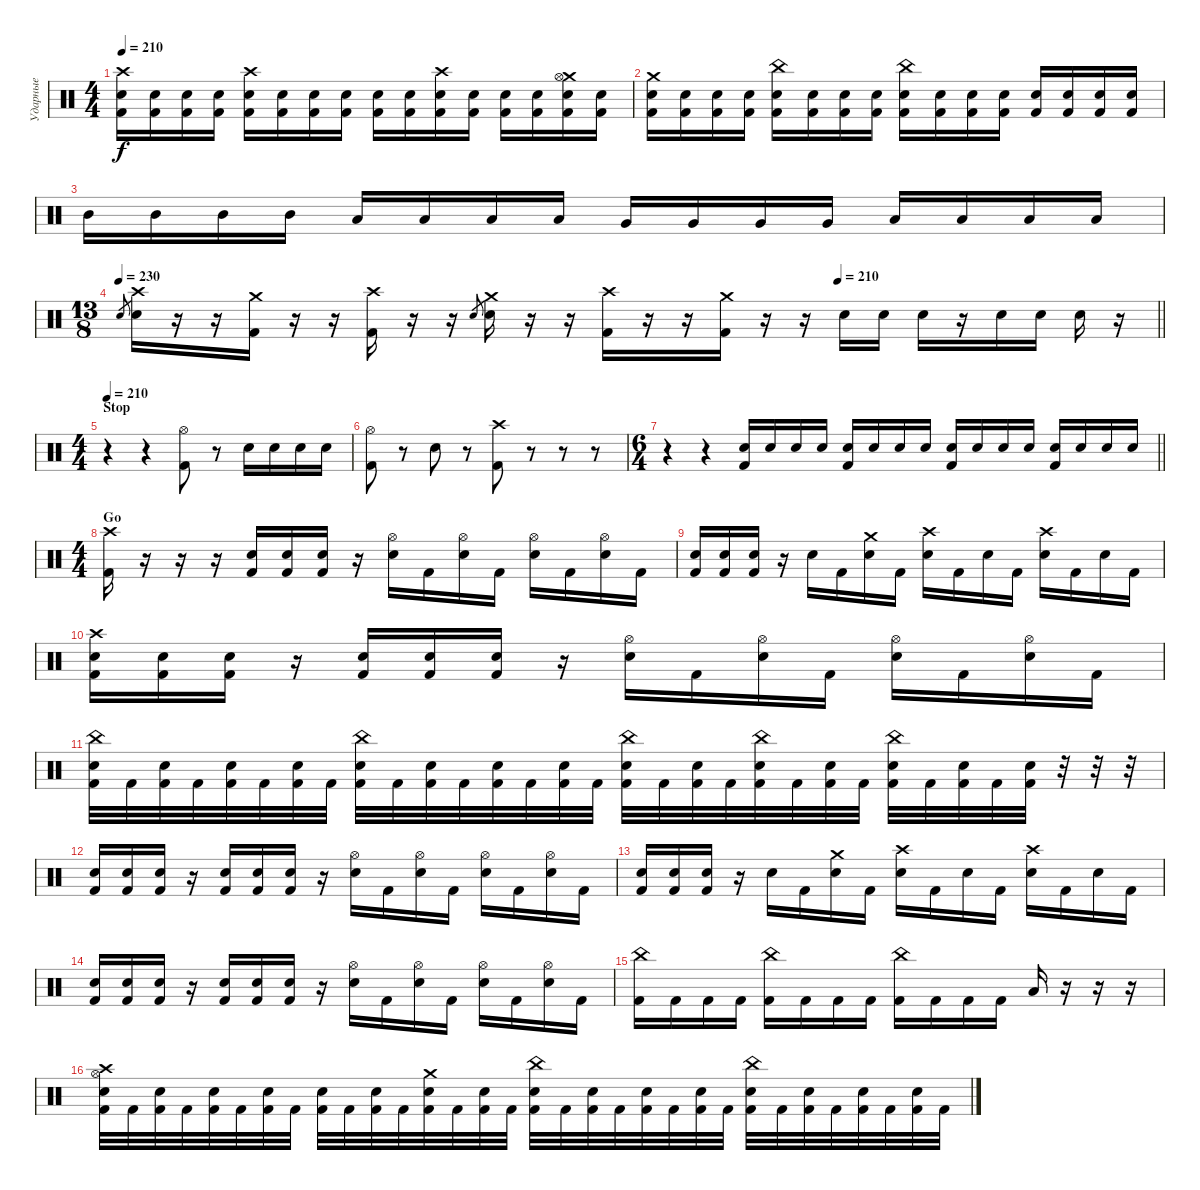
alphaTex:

\track ("Ударные" "Ударные") {instrument percussion}
\staff {score}
\articulation defaults
\ts (4 4)
\tempo 210
\clef neutral
\ks c
("Kick (hit) 2" "Electric Snare (hit)" "Crash high (hit)").16{dy f} ("Kick (hit) 2" "Electric Snare (hit)").16 ("Kick (hit) 2" "Electric Snare (hit)").16 ("Kick (hit) 2" "Electric Snare (hit)").16 ("Kick (hit) 2" "Electric Snare (hit)" "Crash high (hit)").16 ("Kick (hit) 2" "Electric Snare (hit)").16 ("Kick (hit) 2" "Electric Snare (hit)").16 ("Kick (hit) 2" "Electric Snare (hit)").16 ("Kick (hit) 2" "Electric Snare (hit)").16 ("Kick (hit) 2" "Electric Snare (hit)").16 ("Kick (hit) 2" "Electric Snare (hit)" "Crash high (hit)").16 ("Kick (hit) 2" "Electric Snare (hit)").16 ("Kick (hit) 2" "Electric Snare (hit)").16 ("Kick (hit) 2" "Electric Snare (hit)").16 ("Kick (hit) 2" "Electric Snare (hit)" "Crash medium (hit)" "Hi-Hat (open)").16 ("Kick (hit) 2" "Electric Snare (hit)").16 |
("Kick (hit) 2" "Electric Snare (hit)" "Crash medium (hit)").16 ("Kick (hit) 2" "Electric Snare (hit)").16 ("Kick (hit) 2" "Electric Snare (hit)").16 ("Kick (hit) 2" "Electric Snare (hit)").16 ("Kick (hit) 2" "Electric Snare (hit)" "China (hit)").16 ("Kick (hit) 2" "Electric Snare (hit)").16 ("Kick (hit) 2" "Electric Snare (hit)").16 ("Kick (hit) 2" "Electric Snare (hit)").16 ("Kick (hit) 2" "Electric Snare (hit)" "China (hit)").16 ("Kick (hit) 2" "Electric Snare (hit)").16 ("Kick (hit) 2" "Electric Snare (hit)").16 ("Kick (hit) 2" "Electric Snare (hit)").16 ("Kick (hit) 2" "Electric Snare (hit)").16 ("Kick (hit) 2" "Electric Snare (hit)").16 ("Kick (hit) 2" "Electric Snare (hit)").16 ("Kick (hit) 2" "Electric Snare (hit)").16 |
"Mid Tom (hit)".16 "Mid Tom (hit)".16 "Mid Tom (hit)".16 "Mid Tom (hit)".16 "Low Tom (hit)".16 "Low Tom (hit)".16 "Low Tom (hit)".16 "Low Tom (hit)".16 "Very Low Tom (hit)".16 "Very Low Tom (hit)".16 "Very Low Tom (hit)".16 "Very Low Tom (hit)".16 "Low Tom (hit)".16 "Low Tom (hit)".16 "Low Tom (hit)".16 "Low Tom (hit)".16 |
\ts (13 8)
\tempo 230
\tempo (210 0.6923076923076923)
\barLineRight lightlight "Electric Snare (hit)".8{gr}
("Electric Snare (hit)" "Crash high (hit)").16 r.16 r.16 ("Kick (hit) 2" "Crash medium (hit)").16 r.16 r.16 ("Kick (hit) 2" "Crash high (hit)").16 r.16 r.16 "Electric Snare (hit)".8{gr} ("Electric Snare (hit)" "Crash medium (hit)").16 r.16 r.16 ("Kick (hit) 2" "Crash high (hit)").16 r.16 r.16 ("Kick (hit) 2" "Crash medium (hit)").16 r.16 r.16 "Electric Snare (hit)".16 "Electric Snare (hit)".16 "Electric Snare (hit)".16 r.16 "Electric Snare (hit)".16 "Electric Snare (hit)".16 "Electric Snare (hit)".16 r.16 |
\ts (4 4)
\section ("" "Stop")
\tempo 210
r.4 r.4 ("Hi-Hat (open)" "Kick (hit) 2").8 r.8 "Electric Snare (hit)".16 "Electric Snare (hit)".16 "Electric Snare (hit)".16 "Electric Snare (hit)".16 |
("Hi-Hat (open)" "Kick (hit) 2").8 r.8 "Electric Snare (hit)".8 r.8 ("Kick (hit) 2" "Crash high (hit)").8 r.8 r.8{volume 5} r.8 |
\ts (6 4)
\barLineRight lightlight
r.4 r.4{volume 9} ("Kick (hit) 2" "Electric Snare (hit)").16{volume 16} "Electric Snare (hit)".16 "Electric Snare (hit)".16 "Electric Snare (hit)".16 ("Kick (hit) 2" "Electric Snare (hit)").16 "Electric Snare (hit)".16 "Electric Snare (hit)".16 "Electric Snare (hit)".16 ("Kick (hit) 2" "Electric Snare (hit)").16 "Electric Snare (hit)".16 "Electric Snare (hit)".16 "Electric Snare (hit)".16 ("Kick (hit) 2" "Electric Snare (hit)").16 "Electric Snare (hit)".16 "Electric Snare (hit)".16 "Electric Snare (hit)".16 |
\ts (4 4)
\section ("" "Go")
("Kick (hit) 2" "Crash high (hit)").16 r.16 r.16 r.16 ("Electric Snare (hit)" "Kick (hit) 2").16 ("Electric Snare (hit)" "Kick (hit) 2").16 ("Electric Snare (hit)" "Kick (hit) 2").16 r.16 ("Electric Snare (hit)" "Hi-Hat (open)").16 "Kick (hit) 2".16 ("Electric Snare (hit)" "Hi-Hat (open)").16 "Kick (hit) 2".16 ("Electric Snare (hit)" "Hi-Hat (open)").16 "Kick (hit) 2".16 ("Electric Snare (hit)" "Hi-Hat (open)").16 "Kick (hit) 2".16 |
("Electric Snare (hit)" "Kick (hit) 2").16 ("Electric Snare (hit)" "Kick (hit) 2").16 ("Electric Snare (hit)" "Kick (hit) 2").16 r.16 "Electric Snare (hit)".16 "Kick (hit) 2".16 ("Electric Snare (hit)" "Crash medium (hit)").16 "Kick (hit) 2".16 ("Electric Snare (hit)" "Crash high (hit)").16 "Kick (hit) 2".16 "Electric Snare (hit)".16 "Kick (hit) 2".16 ("Electric Snare (hit)" "Crash high (hit)").16 "Kick (hit) 2".16 "Electric Snare (hit)".16 "Kick (hit) 2".16 |
("Electric Snare (hit)" "Kick (hit) 2" "Crash high (hit)").16 ("Electric Snare (hit)" "Kick (hit) 2").16 ("Electric Snare (hit)" "Kick (hit) 2").16 r.16 ("Electric Snare (hit)" "Kick (hit) 2").16 ("Electric Snare (hit)" "Kick (hit) 2").16 ("Electric Snare (hit)" "Kick (hit) 2").16 r.16 ("Electric Snare (hit)" "Hi-Hat (open)").16 "Kick (hit) 2".16 ("Electric Snare (hit)" "Hi-Hat (open)").16 "Kick (hit) 2".16 ("Electric Snare (hit)" "Hi-Hat (open)").16 "Kick (hit) 2".16 ("Electric Snare (hit)" "Hi-Hat (open)").16 "Kick (hit) 2".16 |
("Kick (hit) 2" "Electric Snare (hit)" "China (hit)").32 "Kick (hit) 2".32 ("Kick (hit) 2" "Electric Snare (hit)").32 "Kick (hit) 2".32 ("Kick (hit) 2" "Electric Snare (hit)").32 "Kick (hit) 2".32 ("Kick (hit) 2" "Electric Snare (hit)").32 "Kick (hit) 2".32 ("Kick (hit) 2" "Electric Snare (hit)" "China (hit)").32 "Kick (hit) 2".32 ("Kick (hit) 2" "Electric Snare (hit)").32 "Kick (hit) 2".32 ("Kick (hit) 2" "Electric Snare (hit)").32 "Kick (hit) 2".32 ("Kick (hit) 2" "Electric Snare (hit)").32 "Kick (hit) 2".32 ("Kick (hit) 2" "Electric Snare (hit)" "China (hit)").32 "Kick (hit) 2".32 ("Kick (hit) 2" "Electric Snare (hit)").32 "Kick (hit) 2".32 ("Kick (hit) 2" "Electric Snare (hit)" "China (hit)").32 "Kick (hit) 2".32 ("Kick (hit) 2" "Electric Snare (hit)").32 "Kick (hit) 2".32 ("Kick (hit) 2" "Electric Snare (hit)" "China (hit)").32 "Kick (hit) 2".32 ("Kick (hit) 2" "Electric Snare (hit)").32 "Kick (hit) 2".32 ("Kick (hit) 2" "Electric Snare (hit)").32 r.32 r.32 r.32 |
("Electric Snare (hit)" "Kick (hit) 2").16 ("Electric Snare (hit)" "Kick (hit) 2").16 ("Electric Snare (hit)" "Kick (hit) 2").16 r.16 ("Electric Snare (hit)" "Kick (hit) 2").16 ("Electric Snare (hit)" "Kick (hit) 2").16 ("Electric Snare (hit)" "Kick (hit) 2").16 r.16 ("Electric Snare (hit)" "Hi-Hat (open)").16 "Kick (hit) 2".16 ("Electric Snare (hit)" "Hi-Hat (open)").16 "Kick (hit) 2".16 ("Electric Snare (hit)" "Hi-Hat (open)").16 "Kick (hit) 2".16 ("Electric Snare (hit)" "Hi-Hat (open)").16 "Kick (hit) 2".16 |
("Electric Snare (hit)" "Kick (hit) 2").16 ("Electric Snare (hit)" "Kick (hit) 2").16 ("Electric Snare (hit)" "Kick (hit) 2").16 r.16 "Electric Snare (hit)".16 "Kick (hit) 2".16 ("Electric Snare (hit)" "Crash medium (hit)").16 "Kick (hit) 2".16 ("Electric Snare (hit)" "Crash high (hit)").16 "Kick (hit) 2".16 "Electric Snare (hit)".16 "Kick (hit) 2".16 ("Electric Snare (hit)" "Crash high (hit)").16 "Kick (hit) 2".16 "Electric Snare (hit)".16 "Kick (hit) 2".16 |
("Electric Snare (hit)" "Kick (hit) 2").16 ("Electric Snare (hit)" "Kick (hit) 2").16 ("Electric Snare (hit)" "Kick (hit) 2").16 r.16 ("Electric Snare (hit)" "Kick (hit) 2").16 ("Electric Snare (hit)" "Kick (hit) 2").16 ("Electric Snare (hit)" "Kick (hit) 2").16 r.16 ("Electric Snare (hit)" "Hi-Hat (open)").16 "Kick (hit) 2".16 ("Electric Snare (hit)" "Hi-Hat (open)").16 "Kick (hit) 2".16 ("Electric Snare (hit)" "Hi-Hat (open)").16 "Kick (hit) 2".16 ("Electric Snare (hit)" "Hi-Hat (open)").16 "Kick (hit) 2".16 |
("Kick (hit) 2" "China (hit)").16 "Kick (hit) 2".16 "Kick (hit) 2".16 "Kick (hit) 2".16 ("Kick (hit) 2" "China (hit)").16 "Kick (hit) 2".16 "Kick (hit) 2".16 "Kick (hit) 2".16 ("Kick (hit) 2" "China (hit)").16 "Kick (hit) 2".16 "Kick (hit) 2".16 "Kick (hit) 2".16 "Low Floor Tom (hit)".16 r.16 r.16 r.16 |
("Kick (hit) 2" "Electric Snare (hit)" "Hi-Hat (open)" "Crash high (hit)").32 "Kick (hit) 2".32 ("Kick (hit) 2" "Electric Snare (hit)").32 "Kick (hit) 2".32 ("Kick (hit) 2" "Electric Snare (hit)").32 "Kick (hit) 2".32 ("Kick (hit) 2" "Electric Snare (hit)").32 "Kick (hit) 2".32 ("Kick (hit) 2" "Electric Snare (hit)").32 "Kick (hit) 2".32 ("Kick (hit) 2" "Electric Snare (hit)").32 "Kick (hit) 2".32 ("Kick (hit) 2" "Electric Snare (hit)" "Crash medium (hit)").32 "Kick (hit) 2".32 ("Kick (hit) 2" "Electric Snare (hit)").32 "Kick (hit) 2".32 ("Kick (hit) 2" "Electric Snare (hit)" "China (hit)").32 "Kick (hit) 2".32 ("Kick (hit) 2" "Electric Snare (hit)").32 "Kick (hit) 2".32 ("Kick (hit) 2" "Electric Snare (hit)").32 "Kick (hit) 2".32 ("Kick (hit) 2" "Electric Snare (hit)").32 "Kick (hit) 2".32 ("Kick (hit) 2" "Electric Snare (hit)" "China (hit)").32 "Kick (hit) 2".32 ("Kick (hit) 2" "Electric Snare (hit)").32 "Kick (hit) 2".32 ("Kick (hit) 2" "Electric Snare (hit)").32 "Kick (hit) 2".32 ("Kick (hit) 2" "Electric Snare (hit)").32 "Kick (hit) 2".32
